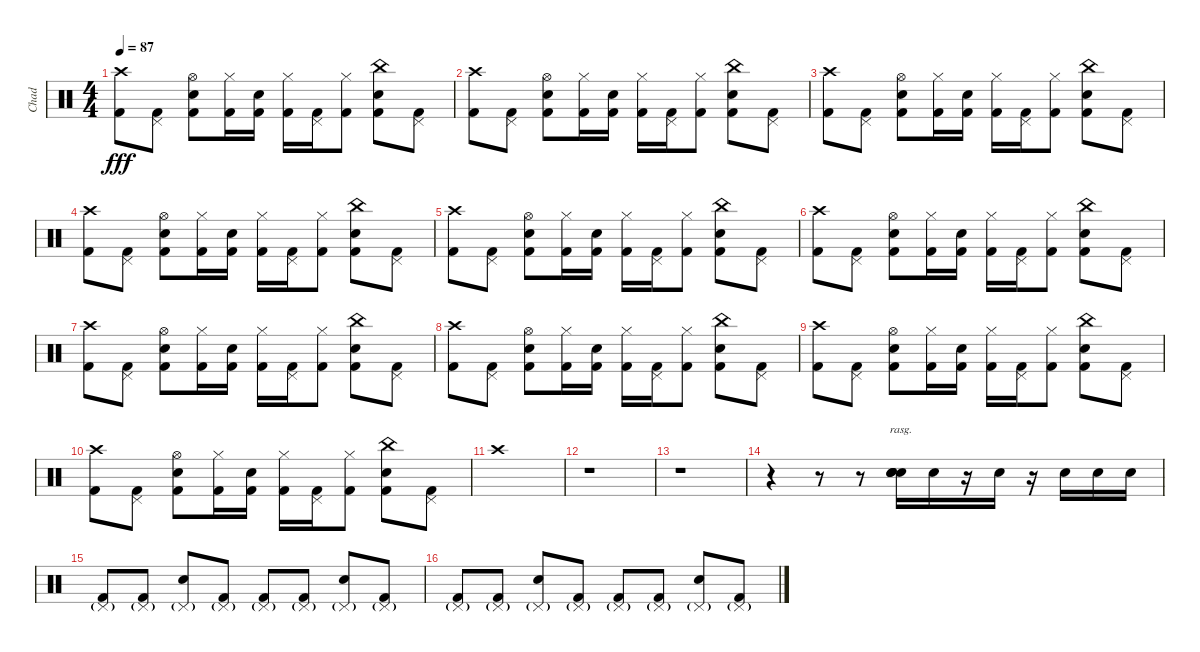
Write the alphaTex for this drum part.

\track ("Chad" "Chad") {instrument percussion}
\staff {score}
\articulation defaults
\ts (4 4)
\tempo 87
\clef neutral
\ks c
("Crash high (hit)" "Kick (hit) 2").8{dy fff} ("Pedal Hi-Hat (hit)" "Kick (hit) 2").8 ("Hi-Hat (open)" "Snare (hit) 2" "Kick (hit) 2").8 ("Hi-Hat (closed)" "Kick (hit) 2").16 ("Snare (hit) 2" "Kick (hit) 2").16 ("Hi-Hat (closed)" "Kick (hit) 2").16 ("Pedal Hi-Hat (hit)" "Kick (hit) 2").16 ("Hi-Hat (closed)" "Kick (hit) 2").8 ("China (hit)" "Snare (hit) 2" "Kick (hit) 2").8 ("Pedal Hi-Hat (hit)" "Kick (hit) 2").8 |
("Crash high (hit)" "Kick (hit) 2").8 ("Pedal Hi-Hat (hit)" "Kick (hit) 2").8 ("Hi-Hat (open)" "Snare (hit) 2" "Kick (hit) 2").8 ("Hi-Hat (closed)" "Kick (hit) 2").16 ("Snare (hit) 2" "Kick (hit) 2").16 ("Hi-Hat (closed)" "Kick (hit) 2").16 ("Pedal Hi-Hat (hit)" "Kick (hit) 2").16 ("Hi-Hat (closed)" "Kick (hit) 2").8 ("China (hit)" "Snare (hit) 2" "Kick (hit) 2").8 ("Pedal Hi-Hat (hit)" "Kick (hit) 2").8 |
("Crash high (hit)" "Kick (hit) 2").8 ("Pedal Hi-Hat (hit)" "Kick (hit) 2").8 ("Hi-Hat (open)" "Snare (hit) 2" "Kick (hit) 2").8 ("Hi-Hat (closed)" "Kick (hit) 2").16 ("Snare (hit) 2" "Kick (hit) 2").16 ("Hi-Hat (closed)" "Kick (hit) 2").16 ("Pedal Hi-Hat (hit)" "Kick (hit) 2").16 ("Hi-Hat (closed)" "Kick (hit) 2").8 ("China (hit)" "Snare (hit) 2" "Kick (hit) 2").8 ("Pedal Hi-Hat (hit)" "Kick (hit) 2").8 |
("Crash high (hit)" "Kick (hit) 2").8 ("Pedal Hi-Hat (hit)" "Kick (hit) 2").8 ("Hi-Hat (open)" "Snare (hit) 2" "Kick (hit) 2").8 ("Hi-Hat (closed)" "Kick (hit) 2").16 ("Snare (hit) 2" "Kick (hit) 2").16 ("Hi-Hat (closed)" "Kick (hit) 2").16 ("Pedal Hi-Hat (hit)" "Kick (hit) 2").16 ("Hi-Hat (closed)" "Kick (hit) 2").8 ("China (hit)" "Snare (hit) 2" "Kick (hit) 2").8 ("Pedal Hi-Hat (hit)" "Kick (hit) 2").8 |
("Crash high (hit)" "Kick (hit) 2").8 ("Pedal Hi-Hat (hit)" "Kick (hit) 2").8 ("Hi-Hat (open)" "Snare (hit) 2" "Kick (hit) 2").8 ("Hi-Hat (closed)" "Kick (hit) 2").16 ("Snare (hit) 2" "Kick (hit) 2").16 ("Hi-Hat (closed)" "Kick (hit) 2").16 ("Pedal Hi-Hat (hit)" "Kick (hit) 2").16 ("Hi-Hat (closed)" "Kick (hit) 2").8 ("China (hit)" "Snare (hit) 2" "Kick (hit) 2").8 ("Pedal Hi-Hat (hit)" "Kick (hit) 2").8 |
("Crash high (hit)" "Kick (hit) 2").8 ("Pedal Hi-Hat (hit)" "Kick (hit) 2").8 ("Hi-Hat (open)" "Snare (hit) 2" "Kick (hit) 2").8 ("Hi-Hat (closed)" "Kick (hit) 2").16 ("Snare (hit) 2" "Kick (hit) 2").16 ("Hi-Hat (closed)" "Kick (hit) 2").16 ("Pedal Hi-Hat (hit)" "Kick (hit) 2").16 ("Hi-Hat (closed)" "Kick (hit) 2").8 ("China (hit)" "Snare (hit) 2" "Kick (hit) 2").8 ("Pedal Hi-Hat (hit)" "Kick (hit) 2").8 |
("Crash high (hit)" "Kick (hit) 2").8 ("Pedal Hi-Hat (hit)" "Kick (hit) 2").8 ("Hi-Hat (open)" "Snare (hit) 2" "Kick (hit) 2").8 ("Hi-Hat (closed)" "Kick (hit) 2").16 ("Snare (hit) 2" "Kick (hit) 2").16 ("Hi-Hat (closed)" "Kick (hit) 2").16 ("Pedal Hi-Hat (hit)" "Kick (hit) 2").16 ("Hi-Hat (closed)" "Kick (hit) 2").8 ("China (hit)" "Snare (hit) 2" "Kick (hit) 2").8 ("Pedal Hi-Hat (hit)" "Kick (hit) 2").8 |
("Crash high (hit)" "Kick (hit) 2").8 ("Pedal Hi-Hat (hit)" "Kick (hit) 2").8 ("Hi-Hat (open)" "Snare (hit) 2" "Kick (hit) 2").8 ("Hi-Hat (closed)" "Kick (hit) 2").16 ("Snare (hit) 2" "Kick (hit) 2").16 ("Hi-Hat (closed)" "Kick (hit) 2").16 ("Pedal Hi-Hat (hit)" "Kick (hit) 2").16 ("Hi-Hat (closed)" "Kick (hit) 2").8 ("China (hit)" "Snare (hit) 2" "Kick (hit) 2").8 ("Pedal Hi-Hat (hit)" "Kick (hit) 2").8 |
("Crash high (hit)" "Kick (hit) 2").8 ("Pedal Hi-Hat (hit)" "Kick (hit) 2").8 ("Hi-Hat (open)" "Snare (hit) 2" "Kick (hit) 2").8 ("Hi-Hat (closed)" "Kick (hit) 2").16 ("Snare (hit) 2" "Kick (hit) 2").16 ("Hi-Hat (closed)" "Kick (hit) 2").16 ("Pedal Hi-Hat (hit)" "Kick (hit) 2").16 ("Hi-Hat (closed)" "Kick (hit) 2").8 ("China (hit)" "Snare (hit) 2" "Kick (hit) 2").8 ("Pedal Hi-Hat (hit)" "Kick (hit) 2").8 |
("Crash high (hit)" "Kick (hit) 2").8 ("Pedal Hi-Hat (hit)" "Kick (hit) 2").8 ("Hi-Hat (open)" "Snare (hit) 2" "Kick (hit) 2").8 ("Hi-Hat (closed)" "Kick (hit) 2").16 ("Snare (hit) 2" "Kick (hit) 2").16 ("Hi-Hat (closed)" "Kick (hit) 2").16 ("Pedal Hi-Hat (hit)" "Kick (hit) 2").16 ("Hi-Hat (closed)" "Kick (hit) 2").8 ("China (hit)" "Snare (hit) 2" "Kick (hit) 2").8 ("Pedal Hi-Hat (hit)" "Kick (hit) 2").8 |
"Crash high (hit)".1 |
r.1 |
r.1 |
r.4 r.8 r.8 ("Snare (hit) 2" "Snare (hit) 2" "Snare (hit) 2" "Snare (hit) 2").16{bd 120 rasg ii} "Snare (hit) 2".16 r.16 "Snare (hit) 2".16 r.16 "Snare (hit) 2".16 "Snare (hit) 2".16 "Snare (hit) 2".16 |
("Pedal Hi-Hat (hit)"{g} "Kick (hit) 2").8 ("Pedal Hi-Hat (hit)"{g} "Kick (hit) 2").8 ("Pedal Hi-Hat (hit)"{g} "Snare (hit) 2").8 ("Pedal Hi-Hat (hit)"{g} "Kick (hit) 2").8 ("Pedal Hi-Hat (hit)"{g} "Kick (hit) 2").8 ("Pedal Hi-Hat (hit)"{g} "Kick (hit) 2").8 ("Pedal Hi-Hat (hit)"{g} "Snare (hit) 2").8 ("Pedal Hi-Hat (hit)"{g} "Kick (hit) 2").8 |
("Pedal Hi-Hat (hit)"{g} "Kick (hit) 2").8 ("Pedal Hi-Hat (hit)"{g} "Kick (hit) 2").8 ("Pedal Hi-Hat (hit)"{g} "Snare (hit) 2").8 ("Pedal Hi-Hat (hit)"{g} "Kick (hit) 2").8 ("Pedal Hi-Hat (hit)"{g} "Kick (hit) 2").8 ("Pedal Hi-Hat (hit)"{g} "Kick (hit) 2").8 ("Pedal Hi-Hat (hit)"{g} "Snare (hit) 2").8 ("Pedal Hi-Hat (hit)"{g} "Kick (hit) 2").8
